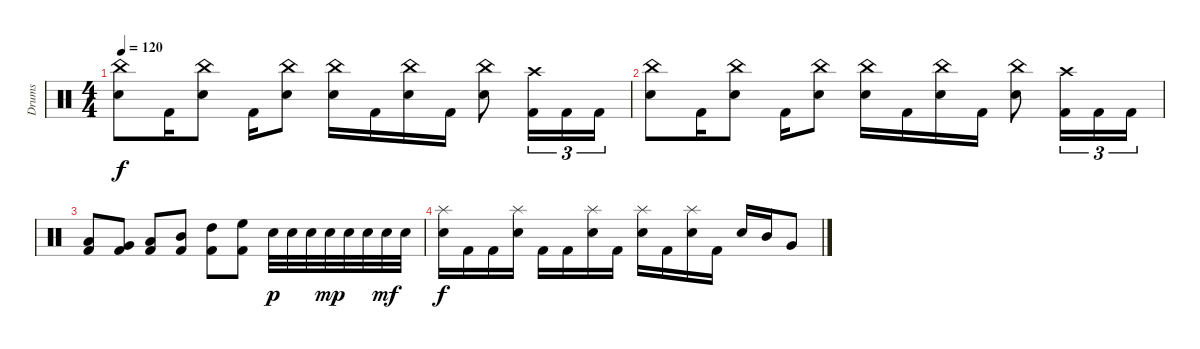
\track ("Drums" "Drums") {instrument percussion}
\staff {score}
\articulation defaults
\ts (4 4)
\tempo 120
\clef neutral
\ks c
("China (hit)" "Electric Snare (hit)").8{dy f} "Kick (hit) 2".16 ("China (hit)" "Electric Snare (hit)").8 "Kick (hit) 2".16 ("China (hit)" "Electric Snare (hit)").8 ("China (hit)" "Electric Snare (hit)").16 "Kick (hit) 2".16 ("China (hit)" "Electric Snare (hit)").16 "Kick (hit) 2".16 ("China (hit)" "Electric Snare (hit)").8 ("Crash high (hit)" "Kick (hit) 2").16{tu (3 2)} "Kick (hit) 2".16{tu (3 2)} "Kick (hit) 2".16{tu (3 2)} |
("China (hit)" "Electric Snare (hit)").8 "Kick (hit) 2".16 ("China (hit)" "Electric Snare (hit)").8 "Kick (hit) 2".16 ("China (hit)" "Electric Snare (hit)").8 ("China (hit)" "Electric Snare (hit)").16 "Kick (hit) 2".16 ("China (hit)" "Electric Snare (hit)").16 "Kick (hit) 2".16 ("China (hit)" "Electric Snare (hit)").8 ("Crash high (hit)" "Kick (hit) 2").16{tu (3 2)} "Kick (hit) 2".16{tu (3 2)} "Kick (hit) 2".16{tu (3 2)} |
("Low Floor Tom (hit)" "Kick (hit) 2").8 ("Very Low Tom (hit)" "Kick (hit) 2").8 ("Low Tom (hit)" "Kick (hit) 2").8 ("Mid Tom (hit)" "Kick (hit) 2").8 ("High Tom (hit)" "Kick (hit) 2").8 ("High Floor Tom (hit)" "Kick (hit) 2").8 "Electric Snare (hit)".32{dy p} "Electric Snare (hit)".32 "Electric Snare (hit)".32 "Electric Snare (hit)".32{dy mp} "Electric Snare (hit)".32 "Electric Snare (hit)".32 "Electric Snare (hit)".32{dy mf} "Electric Snare (hit)".32 |
("Splash (hit)" "Electric Snare (hit)").16{dy f} "Kick (hit) 2".16 "Kick (hit) 2".16 ("Splash (hit)" "Electric Snare (hit)").16 "Kick (hit) 2".16 "Kick (hit) 2".16 ("Splash (hit)" "Electric Snare (hit)").16 "Kick (hit) 2".16 ("Splash (hit)" "Electric Snare (hit)").16 "Kick (hit) 2".16 ("Splash (hit)" "Electric Snare (hit)").16 "Kick (hit) 2".16 "Electric Snare (hit)".16 "Mid Tom (hit)".16 "Very Low Tom (hit)".8
